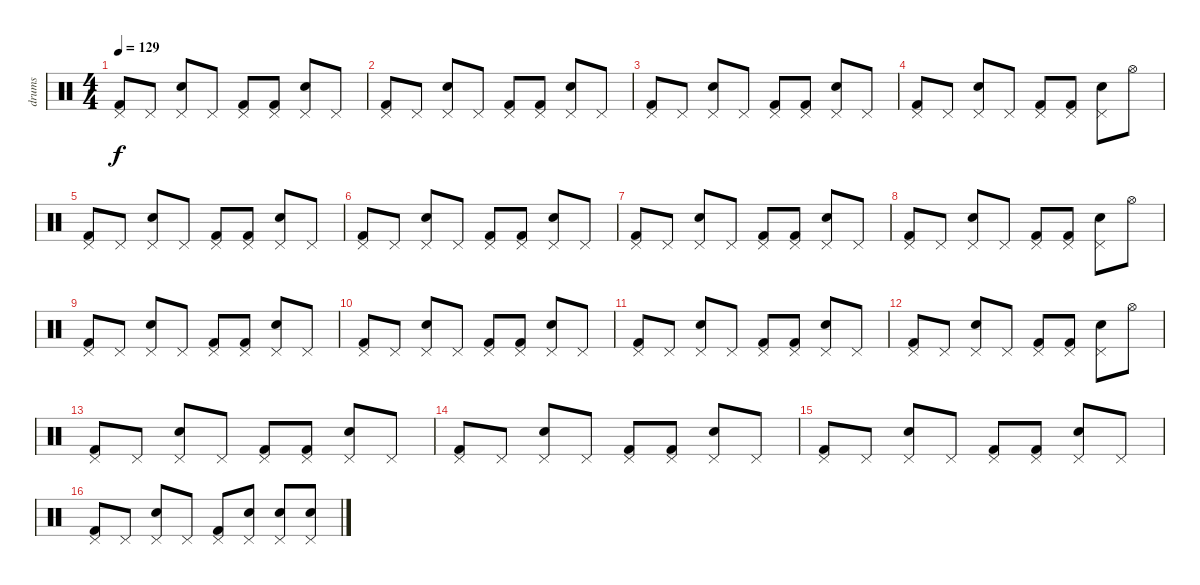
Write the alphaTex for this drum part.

\track ("drums" "drums") {instrument percussion}
\staff {score}
\articulation defaults
\ts (4 4)
\tempo 129
\clef neutral
\ks c
("Kick (hit) 2" "Pedal Hi-Hat (hit)").8{dy f} "Pedal Hi-Hat (hit)".8 ("Electric Snare (hit)" "Pedal Hi-Hat (hit)").8 "Pedal Hi-Hat (hit)".8 ("Kick (hit) 2" "Pedal Hi-Hat (hit)").8 ("Kick (hit) 2" "Pedal Hi-Hat (hit)").8 ("Electric Snare (hit)" "Pedal Hi-Hat (hit)").8 "Pedal Hi-Hat (hit)".8 |
("Kick (hit) 2" "Pedal Hi-Hat (hit)").8 "Pedal Hi-Hat (hit)".8 ("Electric Snare (hit)" "Pedal Hi-Hat (hit)").8 "Pedal Hi-Hat (hit)".8 ("Kick (hit) 2" "Pedal Hi-Hat (hit)").8 ("Kick (hit) 2" "Pedal Hi-Hat (hit)").8 ("Electric Snare (hit)" "Pedal Hi-Hat (hit)").8 "Pedal Hi-Hat (hit)".8 |
("Kick (hit) 2" "Pedal Hi-Hat (hit)").8 "Pedal Hi-Hat (hit)".8 ("Electric Snare (hit)" "Pedal Hi-Hat (hit)").8 "Pedal Hi-Hat (hit)".8 ("Kick (hit) 2" "Pedal Hi-Hat (hit)").8 ("Kick (hit) 2" "Pedal Hi-Hat (hit)").8 ("Electric Snare (hit)" "Pedal Hi-Hat (hit)").8 "Pedal Hi-Hat (hit)".8 |
("Kick (hit) 2" "Pedal Hi-Hat (hit)").8 "Pedal Hi-Hat (hit)".8 ("Electric Snare (hit)" "Pedal Hi-Hat (hit)").8 "Pedal Hi-Hat (hit)".8 ("Kick (hit) 2" "Pedal Hi-Hat (hit)").8 ("Kick (hit) 2" "Pedal Hi-Hat (hit)").8 ("Electric Snare (hit)" "Pedal Hi-Hat (hit)").8 "Hi-Hat (open)".8 |
("Kick (hit) 2" "Pedal Hi-Hat (hit)").8 "Pedal Hi-Hat (hit)".8 ("Electric Snare (hit)" "Pedal Hi-Hat (hit)").8 "Pedal Hi-Hat (hit)".8 ("Kick (hit) 2" "Pedal Hi-Hat (hit)").8 ("Kick (hit) 2" "Pedal Hi-Hat (hit)").8 ("Electric Snare (hit)" "Pedal Hi-Hat (hit)").8 "Pedal Hi-Hat (hit)".8 |
("Kick (hit) 2" "Pedal Hi-Hat (hit)").8 "Pedal Hi-Hat (hit)".8 ("Electric Snare (hit)" "Pedal Hi-Hat (hit)").8 "Pedal Hi-Hat (hit)".8 ("Kick (hit) 2" "Pedal Hi-Hat (hit)").8 ("Kick (hit) 2" "Pedal Hi-Hat (hit)").8 ("Electric Snare (hit)" "Pedal Hi-Hat (hit)").8 "Pedal Hi-Hat (hit)".8 |
("Kick (hit) 2" "Pedal Hi-Hat (hit)").8 "Pedal Hi-Hat (hit)".8 ("Electric Snare (hit)" "Pedal Hi-Hat (hit)").8 "Pedal Hi-Hat (hit)".8 ("Kick (hit) 2" "Pedal Hi-Hat (hit)").8 ("Kick (hit) 2" "Pedal Hi-Hat (hit)").8 ("Electric Snare (hit)" "Pedal Hi-Hat (hit)").8 "Pedal Hi-Hat (hit)".8 |
("Kick (hit) 2" "Pedal Hi-Hat (hit)").8 "Pedal Hi-Hat (hit)".8 ("Electric Snare (hit)" "Pedal Hi-Hat (hit)").8 "Pedal Hi-Hat (hit)".8 ("Kick (hit) 2" "Pedal Hi-Hat (hit)").8 ("Kick (hit) 2" "Pedal Hi-Hat (hit)").8 ("Electric Snare (hit)" "Pedal Hi-Hat (hit)").8 "Hi-Hat (open)".8 |
("Kick (hit) 2" "Pedal Hi-Hat (hit)").8 "Pedal Hi-Hat (hit)".8 ("Electric Snare (hit)" "Pedal Hi-Hat (hit)").8 "Pedal Hi-Hat (hit)".8 ("Kick (hit) 2" "Pedal Hi-Hat (hit)").8 ("Kick (hit) 2" "Pedal Hi-Hat (hit)").8 ("Electric Snare (hit)" "Pedal Hi-Hat (hit)").8 "Pedal Hi-Hat (hit)".8 |
("Kick (hit) 2" "Pedal Hi-Hat (hit)").8 "Pedal Hi-Hat (hit)".8 ("Electric Snare (hit)" "Pedal Hi-Hat (hit)").8 "Pedal Hi-Hat (hit)".8 ("Kick (hit) 2" "Pedal Hi-Hat (hit)").8 ("Kick (hit) 2" "Pedal Hi-Hat (hit)").8 ("Electric Snare (hit)" "Pedal Hi-Hat (hit)").8 "Pedal Hi-Hat (hit)".8 |
("Kick (hit) 2" "Pedal Hi-Hat (hit)").8 "Pedal Hi-Hat (hit)".8 ("Electric Snare (hit)" "Pedal Hi-Hat (hit)").8 "Pedal Hi-Hat (hit)".8 ("Kick (hit) 2" "Pedal Hi-Hat (hit)").8 ("Kick (hit) 2" "Pedal Hi-Hat (hit)").8 ("Electric Snare (hit)" "Pedal Hi-Hat (hit)").8 "Pedal Hi-Hat (hit)".8 |
("Kick (hit) 2" "Pedal Hi-Hat (hit)").8 "Pedal Hi-Hat (hit)".8 ("Electric Snare (hit)" "Pedal Hi-Hat (hit)").8 "Pedal Hi-Hat (hit)".8 ("Kick (hit) 2" "Pedal Hi-Hat (hit)").8 ("Kick (hit) 2" "Pedal Hi-Hat (hit)").8 ("Electric Snare (hit)" "Pedal Hi-Hat (hit)").8 "Hi-Hat (open)".8 |
("Kick (hit) 2" "Pedal Hi-Hat (hit)").8 "Pedal Hi-Hat (hit)".8 ("Electric Snare (hit)" "Pedal Hi-Hat (hit)").8 "Pedal Hi-Hat (hit)".8 ("Kick (hit) 2" "Pedal Hi-Hat (hit)").8 ("Kick (hit) 2" "Pedal Hi-Hat (hit)").8 ("Electric Snare (hit)" "Pedal Hi-Hat (hit)").8 "Pedal Hi-Hat (hit)".8 |
("Kick (hit) 2" "Pedal Hi-Hat (hit)").8 "Pedal Hi-Hat (hit)".8 ("Electric Snare (hit)" "Pedal Hi-Hat (hit)").8 "Pedal Hi-Hat (hit)".8 ("Kick (hit) 2" "Pedal Hi-Hat (hit)").8 ("Kick (hit) 2" "Pedal Hi-Hat (hit)").8 ("Electric Snare (hit)" "Pedal Hi-Hat (hit)").8 "Pedal Hi-Hat (hit)".8 |
("Kick (hit) 2" "Pedal Hi-Hat (hit)").8 "Pedal Hi-Hat (hit)".8 ("Electric Snare (hit)" "Pedal Hi-Hat (hit)").8 "Pedal Hi-Hat (hit)".8 ("Kick (hit) 2" "Pedal Hi-Hat (hit)").8 ("Kick (hit) 2" "Pedal Hi-Hat (hit)").8 ("Electric Snare (hit)" "Pedal Hi-Hat (hit)").8 "Pedal Hi-Hat (hit)".8 |
("Kick (hit) 2" "Pedal Hi-Hat (hit)").8 "Pedal Hi-Hat (hit)".8 ("Electric Snare (hit)" "Pedal Hi-Hat (hit)").8 "Pedal Hi-Hat (hit)".8 ("Kick (hit) 2" "Pedal Hi-Hat (hit)").8 ("Electric Snare (hit)" "Pedal Hi-Hat (hit)").8 ("Electric Snare (hit)" "Pedal Hi-Hat (hit)").8 ("Electric Snare (hit)" "Pedal Hi-Hat (hit)").8
